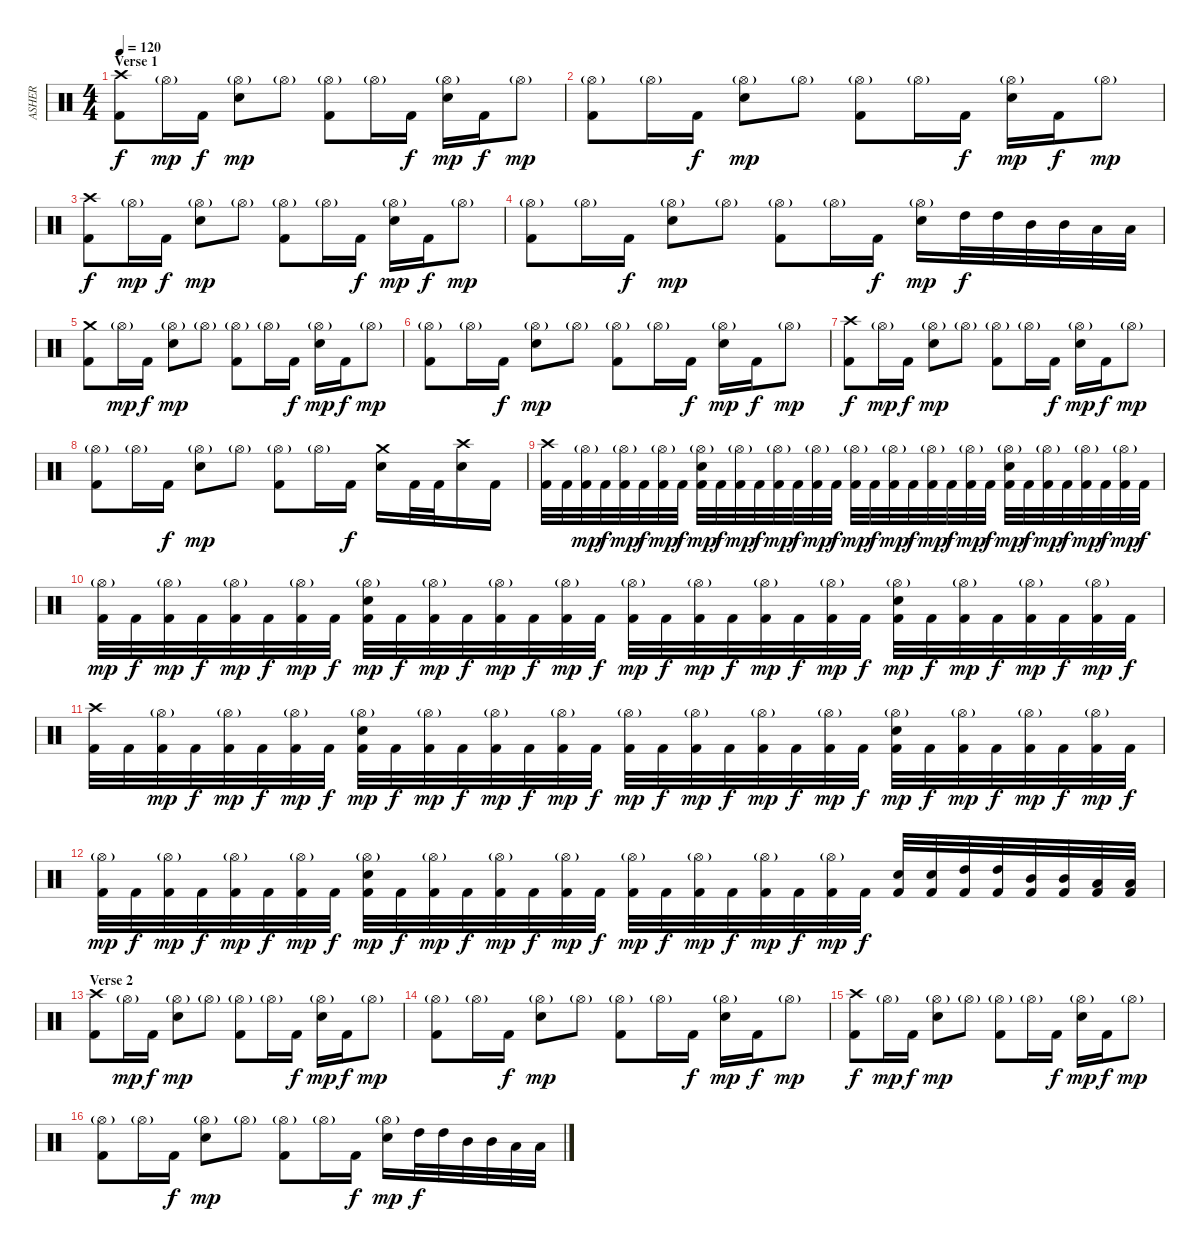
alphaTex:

\track ("ASHER" "ASHER") {instrument percussion}
\staff {score}
\articulation defaults
\ts (4 4)
\section ("" "Verse 1")
\tempo 120
\clef neutral
\ks c
("Crash high (hit)" "Kick (hit) 2").8{dy f} "Hi-Hat (open)"{g}.16{dy mp} "Kick (hit) 2".16{dy f} ("Hi-Hat (open)"{g} "Electric Snare (hit)").8{dy mp} "Hi-Hat (open)"{g}.8 ("Hi-Hat (open)"{g} "Kick (hit) 2").8 "Hi-Hat (open)"{g}.16 "Kick (hit) 2".16{dy f} ("Hi-Hat (open)"{g} "Electric Snare (hit)").16{dy mp} "Kick (hit) 2".16{dy f} "Hi-Hat (open)"{g}.8{dy mp} |
("Hi-Hat (open)"{g} "Kick (hit) 2").8 "Hi-Hat (open)"{g}.16 "Kick (hit) 2".16{dy f} ("Hi-Hat (open)"{g} "Electric Snare (hit)").8{dy mp} "Hi-Hat (open)"{g}.8 ("Hi-Hat (open)"{g} "Kick (hit) 2").8 "Hi-Hat (open)"{g}.16 "Kick (hit) 2".16{dy f} ("Hi-Hat (open)"{g} "Electric Snare (hit)").16{dy mp} "Kick (hit) 2".16{dy f} "Hi-Hat (open)"{g}.8{dy mp} |
("Crash high (hit)" "Kick (hit) 2").8{dy f} "Hi-Hat (open)"{g}.16{dy mp} "Kick (hit) 2".16{dy f} ("Hi-Hat (open)"{g} "Electric Snare (hit)").8{dy mp} "Hi-Hat (open)"{g}.8 ("Hi-Hat (open)"{g} "Kick (hit) 2").8 "Hi-Hat (open)"{g}.16 "Kick (hit) 2".16{dy f} ("Hi-Hat (open)"{g} "Electric Snare (hit)").16{dy mp} "Kick (hit) 2".16{dy f} "Hi-Hat (open)"{g}.8{dy mp} |
("Hi-Hat (open)"{g} "Kick (hit) 2").8 "Hi-Hat (open)"{g}.16 "Kick (hit) 2".16{dy f} ("Hi-Hat (open)"{g} "Electric Snare (hit)").8{dy mp} "Hi-Hat (open)"{g}.8 ("Hi-Hat (open)"{g} "Kick (hit) 2").8 "Hi-Hat (open)"{g}.16 "Kick (hit) 2".16{dy f} ("Hi-Hat (open)"{g} "Electric Snare (hit)").16{dy mp} "High Tom (hit)".32{dy f} "High Tom (hit)".32 "Mid Tom (hit)".32 "Mid Tom (hit)".32 "Low Tom (hit)".32 "Low Tom (hit)".32 |
("Crash medium (hit)" "Kick (hit) 2").8 "Hi-Hat (open)"{g}.16{dy mp} "Kick (hit) 2".16{dy f} ("Hi-Hat (open)"{g} "Electric Snare (hit)").8{dy mp} "Hi-Hat (open)"{g}.8 ("Hi-Hat (open)"{g} "Kick (hit) 2").8 "Hi-Hat (open)"{g}.16 "Kick (hit) 2".16{dy f} ("Hi-Hat (open)"{g} "Electric Snare (hit)").16{dy mp} "Kick (hit) 2".16{dy f} "Hi-Hat (open)"{g}.8{dy mp} |
("Hi-Hat (open)"{g} "Kick (hit) 2").8 "Hi-Hat (open)"{g}.16 "Kick (hit) 2".16{dy f} ("Hi-Hat (open)"{g} "Electric Snare (hit)").8{dy mp} "Hi-Hat (open)"{g}.8 ("Hi-Hat (open)"{g} "Kick (hit) 2").8 "Hi-Hat (open)"{g}.16 "Kick (hit) 2".16{dy f} ("Hi-Hat (open)"{g} "Electric Snare (hit)").16{dy mp} "Kick (hit) 2".16{dy f} "Hi-Hat (open)"{g}.8{dy mp} |
("Crash high (hit)" "Kick (hit) 2").8{dy f} "Hi-Hat (open)"{g}.16{dy mp} "Kick (hit) 2".16{dy f} ("Hi-Hat (open)"{g} "Electric Snare (hit)").8{dy mp} "Hi-Hat (open)"{g}.8 ("Hi-Hat (open)"{g} "Kick (hit) 2").8 "Hi-Hat (open)"{g}.16 "Kick (hit) 2".16{dy f} ("Hi-Hat (open)"{g} "Electric Snare (hit)").16{dy mp} "Kick (hit) 2".16{dy f} "Hi-Hat (open)"{g}.8{dy mp} |
("Hi-Hat (open)"{g} "Kick (hit) 2").8 "Hi-Hat (open)"{g}.16 "Kick (hit) 2".16{dy f} ("Hi-Hat (open)"{g} "Electric Snare (hit)").8{dy mp} "Hi-Hat (open)"{g}.8 ("Hi-Hat (open)"{g} "Kick (hit) 2").8 "Hi-Hat (open)"{g}.16 "Kick (hit) 2".16{dy f} ("Crash medium (hit)" "Electric Snare (hit)").16 "Kick (hit) 2".32 "Kick (hit) 2".32 ("Crash high (hit)" "Electric Snare (hit)").16 "Kick (hit) 2".16 |
("Crash high (hit)" "Kick (hit) 2").32 "Kick (hit) 2".32 ("Hi-Hat (open)"{g} "Kick (hit) 2").32{dy mp} "Kick (hit) 2".32{dy f} ("Hi-Hat (open)"{g} "Kick (hit) 2").32{dy mp} "Kick (hit) 2".32{dy f} ("Hi-Hat (open)"{g} "Kick (hit) 2").32{dy mp} "Kick (hit) 2".32{dy f} ("Hi-Hat (open)"{g} "Electric Snare (hit)" "Kick (hit) 2").32{dy mp} "Kick (hit) 2".32{dy f} ("Hi-Hat (open)"{g} "Kick (hit) 2").32{dy mp} "Kick (hit) 2".32{dy f} ("Hi-Hat (open)"{g} "Kick (hit) 2").32{dy mp} "Kick (hit) 2".32{dy f} ("Hi-Hat (open)"{g} "Kick (hit) 2").32{dy mp} "Kick (hit) 2".32{dy f} ("Hi-Hat (open)"{g} "Kick (hit) 2").32{dy mp} "Kick (hit) 2".32{dy f} ("Hi-Hat (open)"{g} "Kick (hit) 2").32{dy mp} "Kick (hit) 2".32{dy f} ("Hi-Hat (open)"{g} "Kick (hit) 2").32{dy mp} "Kick (hit) 2".32{dy f} ("Hi-Hat (open)"{g} "Kick (hit) 2").32{dy mp} "Kick (hit) 2".32{dy f} ("Hi-Hat (open)"{g} "Electric Snare (hit)" "Kick (hit) 2").32{dy mp} "Kick (hit) 2".32{dy f} ("Hi-Hat (open)"{g} "Kick (hit) 2").32{dy mp} "Kick (hit) 2".32{dy f} ("Hi-Hat (open)"{g} "Kick (hit) 2").32{dy mp} "Kick (hit) 2".32{dy f} ("Hi-Hat (open)"{g} "Kick (hit) 2").32{dy mp} "Kick (hit) 2".32{dy f} |
("Hi-Hat (open)"{g} "Kick (hit) 2").32{dy mp} "Kick (hit) 2".32{dy f} ("Hi-Hat (open)"{g} "Kick (hit) 2").32{dy mp} "Kick (hit) 2".32{dy f} ("Hi-Hat (open)"{g} "Kick (hit) 2").32{dy mp} "Kick (hit) 2".32{dy f} ("Hi-Hat (open)"{g} "Kick (hit) 2").32{dy mp} "Kick (hit) 2".32{dy f} ("Hi-Hat (open)"{g} "Electric Snare (hit)" "Kick (hit) 2").32{dy mp} "Kick (hit) 2".32{dy f} ("Hi-Hat (open)"{g} "Kick (hit) 2").32{dy mp} "Kick (hit) 2".32{dy f} ("Hi-Hat (open)"{g} "Kick (hit) 2").32{dy mp} "Kick (hit) 2".32{dy f} ("Hi-Hat (open)"{g} "Kick (hit) 2").32{dy mp} "Kick (hit) 2".32{dy f} ("Hi-Hat (open)"{g} "Kick (hit) 2").32{dy mp} "Kick (hit) 2".32{dy f} ("Hi-Hat (open)"{g} "Kick (hit) 2").32{dy mp} "Kick (hit) 2".32{dy f} ("Hi-Hat (open)"{g} "Kick (hit) 2").32{dy mp} "Kick (hit) 2".32{dy f} ("Hi-Hat (open)"{g} "Kick (hit) 2").32{dy mp} "Kick (hit) 2".32{dy f} ("Hi-Hat (open)"{g} "Electric Snare (hit)" "Kick (hit) 2").32{dy mp} "Kick (hit) 2".32{dy f} ("Hi-Hat (open)"{g} "Kick (hit) 2").32{dy mp} "Kick (hit) 2".32{dy f} ("Hi-Hat (open)"{g} "Kick (hit) 2").32{dy mp} "Kick (hit) 2".32{dy f} ("Hi-Hat (open)"{g} "Kick (hit) 2").32{dy mp} "Kick (hit) 2".32{dy f} |
("Crash high (hit)" "Kick (hit) 2").32 "Kick (hit) 2".32 ("Hi-Hat (open)"{g} "Kick (hit) 2").32{dy mp} "Kick (hit) 2".32{dy f} ("Hi-Hat (open)"{g} "Kick (hit) 2").32{dy mp} "Kick (hit) 2".32{dy f} ("Hi-Hat (open)"{g} "Kick (hit) 2").32{dy mp} "Kick (hit) 2".32{dy f} ("Hi-Hat (open)"{g} "Electric Snare (hit)" "Kick (hit) 2").32{dy mp} "Kick (hit) 2".32{dy f} ("Hi-Hat (open)"{g} "Kick (hit) 2").32{dy mp} "Kick (hit) 2".32{dy f} ("Hi-Hat (open)"{g} "Kick (hit) 2").32{dy mp} "Kick (hit) 2".32{dy f} ("Hi-Hat (open)"{g} "Kick (hit) 2").32{dy mp} "Kick (hit) 2".32{dy f} ("Hi-Hat (open)"{g} "Kick (hit) 2").32{dy mp} "Kick (hit) 2".32{dy f} ("Hi-Hat (open)"{g} "Kick (hit) 2").32{dy mp} "Kick (hit) 2".32{dy f} ("Hi-Hat (open)"{g} "Kick (hit) 2").32{dy mp} "Kick (hit) 2".32{dy f} ("Hi-Hat (open)"{g} "Kick (hit) 2").32{dy mp} "Kick (hit) 2".32{dy f} ("Hi-Hat (open)"{g} "Electric Snare (hit)" "Kick (hit) 2").32{dy mp} "Kick (hit) 2".32{dy f} ("Hi-Hat (open)"{g} "Kick (hit) 2").32{dy mp} "Kick (hit) 2".32{dy f} ("Hi-Hat (open)"{g} "Kick (hit) 2").32{dy mp} "Kick (hit) 2".32{dy f} ("Hi-Hat (open)"{g} "Kick (hit) 2").32{dy mp} "Kick (hit) 2".32{dy f} |
("Hi-Hat (open)"{g} "Kick (hit) 2").32{dy mp} "Kick (hit) 2".32{dy f} ("Hi-Hat (open)"{g} "Kick (hit) 2").32{dy mp} "Kick (hit) 2".32{dy f} ("Hi-Hat (open)"{g} "Kick (hit) 2").32{dy mp} "Kick (hit) 2".32{dy f} ("Hi-Hat (open)"{g} "Kick (hit) 2").32{dy mp} "Kick (hit) 2".32{dy f} ("Hi-Hat (open)"{g} "Electric Snare (hit)" "Kick (hit) 2").32{dy mp} "Kick (hit) 2".32{dy f} ("Hi-Hat (open)"{g} "Kick (hit) 2").32{dy mp} "Kick (hit) 2".32{dy f} ("Hi-Hat (open)"{g} "Kick (hit) 2").32{dy mp} "Kick (hit) 2".32{dy f} ("Hi-Hat (open)"{g} "Kick (hit) 2").32{dy mp} "Kick (hit) 2".32{dy f} ("Hi-Hat (open)"{g} "Kick (hit) 2").32{dy mp} "Kick (hit) 2".32{dy f} ("Hi-Hat (open)"{g} "Kick (hit) 2").32{dy mp} "Kick (hit) 2".32{dy f} ("Hi-Hat (open)"{g} "Kick (hit) 2").32{dy mp} "Kick (hit) 2".32{dy f} ("Hi-Hat (open)"{g} "Kick (hit) 2").32{dy mp} "Kick (hit) 2".32{dy f} ("Electric Snare (hit)" "Kick (hit) 2").32 ("Electric Snare (hit)" "Kick (hit) 2").32 ("High Tom (hit)" "Kick (hit) 2").32 ("High Tom (hit)" "Kick (hit) 2").32 ("Mid Tom (hit)" "Kick (hit) 2").32 ("Mid Tom (hit)" "Kick (hit) 2").32 ("Low Tom (hit)" "Kick (hit) 2").32 ("Low Tom (hit)" "Kick (hit) 2").32 |
\section ("" "Verse 2")
("Crash high (hit)" "Kick (hit) 2").8 "Hi-Hat (open)"{g}.16{dy mp} "Kick (hit) 2".16{dy f} ("Hi-Hat (open)"{g} "Electric Snare (hit)").8{dy mp} "Hi-Hat (open)"{g}.8 ("Hi-Hat (open)"{g} "Kick (hit) 2").8 "Hi-Hat (open)"{g}.16 "Kick (hit) 2".16{dy f} ("Hi-Hat (open)"{g} "Electric Snare (hit)").16{dy mp} "Kick (hit) 2".16{dy f} "Hi-Hat (open)"{g}.8{dy mp} |
("Hi-Hat (open)"{g} "Kick (hit) 2").8 "Hi-Hat (open)"{g}.16 "Kick (hit) 2".16{dy f} ("Hi-Hat (open)"{g} "Electric Snare (hit)").8{dy mp} "Hi-Hat (open)"{g}.8 ("Hi-Hat (open)"{g} "Kick (hit) 2").8 "Hi-Hat (open)"{g}.16 "Kick (hit) 2".16{dy f} ("Hi-Hat (open)"{g} "Electric Snare (hit)").16{dy mp} "Kick (hit) 2".16{dy f} "Hi-Hat (open)"{g}.8{dy mp} |
("Crash high (hit)" "Kick (hit) 2").8{dy f} "Hi-Hat (open)"{g}.16{dy mp} "Kick (hit) 2".16{dy f} ("Hi-Hat (open)"{g} "Electric Snare (hit)").8{dy mp} "Hi-Hat (open)"{g}.8 ("Hi-Hat (open)"{g} "Kick (hit) 2").8 "Hi-Hat (open)"{g}.16 "Kick (hit) 2".16{dy f} ("Hi-Hat (open)"{g} "Electric Snare (hit)").16{dy mp} "Kick (hit) 2".16{dy f} "Hi-Hat (open)"{g}.8{dy mp} |
("Hi-Hat (open)"{g} "Kick (hit) 2").8 "Hi-Hat (open)"{g}.16 "Kick (hit) 2".16{dy f} ("Hi-Hat (open)"{g} "Electric Snare (hit)").8{dy mp} "Hi-Hat (open)"{g}.8 ("Hi-Hat (open)"{g} "Kick (hit) 2").8 "Hi-Hat (open)"{g}.16 "Kick (hit) 2".16{dy f} ("Hi-Hat (open)"{g} "Electric Snare (hit)").16{dy mp} "High Tom (hit)".32{dy f} "High Tom (hit)".32 "Mid Tom (hit)".32 "Mid Tom (hit)".32 "Low Tom (hit)".32 "Low Tom (hit)".32
